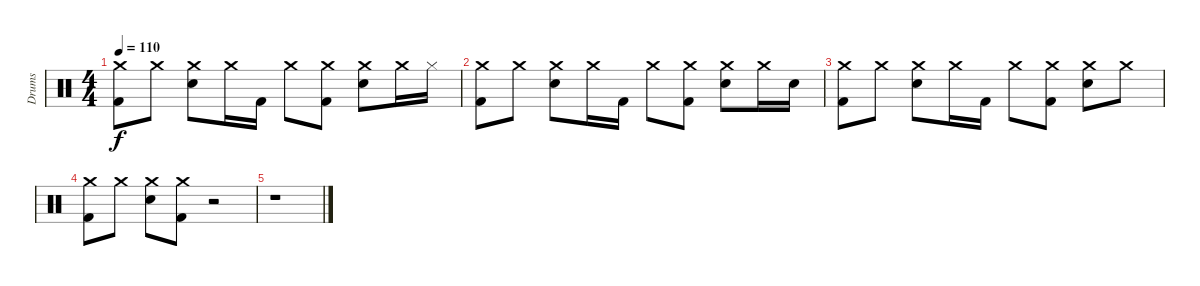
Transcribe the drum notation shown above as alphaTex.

\track ("Drums" "Drums") {instrument percussion}
\staff {score}
\articulation defaults
\ts (4 4)
\tempo 110
\clef neutral
\ks c
("Crash medium (hit)" "Kick (hit) 2").8{dy f} "Crash medium (hit)".8 ("Crash medium (hit)" "Electric Snare (hit)").8 "Crash medium (hit)".16 "Kick (hit) 2".16 "Crash medium (hit)".8 ("Crash medium (hit)" "Kick (hit) 2").8 ("Crash medium (hit)" "Electric Snare (hit)").8 "Crash medium (hit)".16 "Hi-Hat (closed)".16 |
("Crash medium (hit)" "Kick (hit) 2").8 "Crash medium (hit)".8 ("Crash medium (hit)" "Electric Snare (hit)").8 "Crash medium (hit)".16 "Kick (hit) 2".16 "Crash medium (hit)".8 ("Crash medium (hit)" "Kick (hit) 2").8 ("Crash medium (hit)" "Electric Snare (hit)").8 "Crash medium (hit)".16 "Electric Snare (hit)".16 |
("Crash medium (hit)" "Kick (hit) 2").8 "Crash medium (hit)".8 ("Crash medium (hit)" "Electric Snare (hit)").8 "Crash medium (hit)".16 "Kick (hit) 2".16 "Crash medium (hit)".8 ("Crash medium (hit)" "Kick (hit) 2").8 ("Crash medium (hit)" "Electric Snare (hit)").8 "Crash medium (hit)".8 |
("Crash medium (hit)" "Kick (hit) 2").8 "Crash medium (hit)".8 ("Crash medium (hit)" "Electric Snare (hit)").8 ("Crash medium (hit)" "Kick (hit) 2").8 r.2{volume 0} |
r.1
